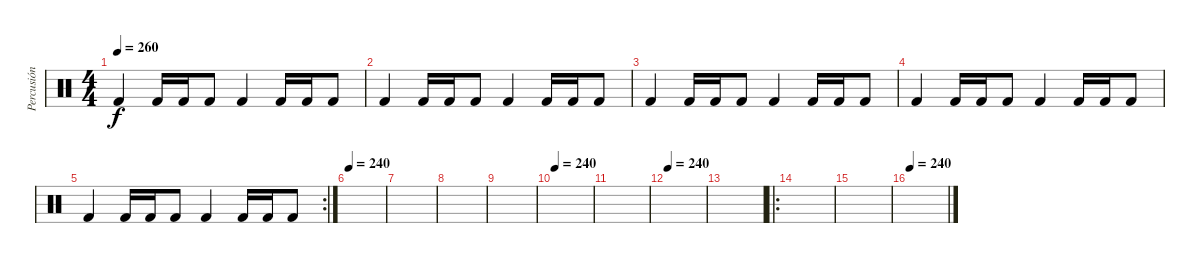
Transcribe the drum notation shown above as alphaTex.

\track ("Percusión" "Percusión") {instrument percussion}
\staff {score}
\articulation defaults
\ts (4 4)
\tempo 260
\clef neutral
\ks c "Kick (hit) 2".4{dy f} "Kick (hit) 2".16 "Kick (hit) 2".16 "Kick (hit) 2".8 "Kick (hit) 2".4 "Kick (hit) 2".16 "Kick (hit) 2".16 "Kick (hit) 2".8
|
"Kick (hit) 2".4 "Kick (hit) 2".16 "Kick (hit) 2".16 "Kick (hit) 2".8 "Kick (hit) 2".4 "Kick (hit) 2".16 "Kick (hit) 2".16 "Kick (hit) 2".8 |
"Kick (hit) 2".4 "Kick (hit) 2".16 "Kick (hit) 2".16 "Kick (hit) 2".8 "Kick (hit) 2".4 "Kick (hit) 2".16 "Kick (hit) 2".16 "Kick (hit) 2".8 |
"Kick (hit) 2".4 "Kick (hit) 2".16 "Kick (hit) 2".16 "Kick (hit) 2".8 "Kick (hit) 2".4 "Kick (hit) 2".16 "Kick (hit) 2".16 "Kick (hit) 2".8 |
\rc 2 "Kick (hit) 2".4 "Kick (hit) 2".16 "Kick (hit) 2".16 "Kick (hit) 2".8 "Kick (hit) 2".4 "Kick (hit) 2".16 "Kick (hit) 2".16 "Kick (hit) 2".8
|
\tempo 240
|
|
|
|
\tempo 240
|
|
\tempo 240
|
|
\ro
|
|
\tempo 240
